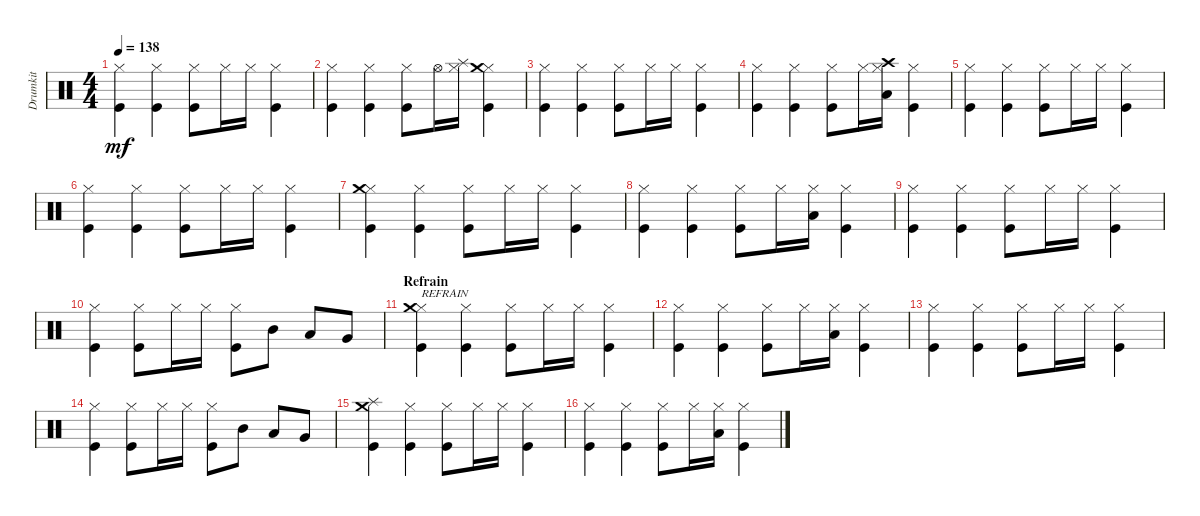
\track ("Drumkit" "Drumkit") {instrument percussion}
\staff {score}
\articulation defaults
\ts (4 4)
\tempo 138
\clef neutral
\ks c
("Hi-Hat (closed)" "Kick (hit)").4{dy mf} ("Hi-Hat (closed)" "Kick (hit)").4 ("Hi-Hat (closed)" "Kick (hit)").8 "Hi-Hat (closed)".16 "Hi-Hat (closed)".16 ("Hi-Hat (closed)" "Kick (hit)").4 |
("Hi-Hat (closed)" "Kick (hit)").4 ("Hi-Hat (closed)" "Kick (hit)").4 ("Hi-Hat (closed)" "Kick (hit)").8 "Hi-Hat (open)".16 ("Hi-Hat (closed)" "Splash (hit)").16 ("Hi-Hat (closed)" "Kick (hit)" "Crash medium (hit)").4 |
("Hi-Hat (closed)" "Kick (hit)").4 ("Hi-Hat (closed)" "Kick (hit)").4 ("Hi-Hat (closed)" "Kick (hit)").8 "Hi-Hat (closed)".16 "Hi-Hat (closed)".16 ("Hi-Hat (closed)" "Kick (hit)").4 |
("Hi-Hat (closed)" "Kick (hit)").4 ("Hi-Hat (closed)" "Kick (hit)").4 ("Hi-Hat (closed)" "Kick (hit)").8 "Hi-Hat (closed)".16 ("Hi-Hat (closed)" "Crash high (hit)" "Low Tom (hit)").16 ("Hi-Hat (closed)" "Kick (hit)").4 |
("Hi-Hat (closed)" "Kick (hit)").4 ("Hi-Hat (closed)" "Kick (hit)").4 ("Hi-Hat (closed)" "Kick (hit)").8 "Hi-Hat (closed)".16 "Hi-Hat (closed)".16 ("Hi-Hat (closed)" "Kick (hit)").4 |
("Hi-Hat (closed)" "Kick (hit)").4 ("Hi-Hat (closed)" "Kick (hit)").4 ("Hi-Hat (closed)" "Kick (hit)").8 "Hi-Hat (closed)".16 "Hi-Hat (closed)".16 ("Hi-Hat (closed)" "Kick (hit)").4 |
("Hi-Hat (closed)" "Kick (hit)" "Crash medium (hit)").4 ("Hi-Hat (closed)" "Kick (hit)").4 ("Hi-Hat (closed)" "Kick (hit)").8 "Hi-Hat (closed)".16 "Hi-Hat (closed)".16 ("Hi-Hat (closed)" "Kick (hit)").4 |
("Hi-Hat (closed)" "Kick (hit)").4 ("Hi-Hat (closed)" "Kick (hit)").4 ("Hi-Hat (closed)" "Kick (hit)").8 "Hi-Hat (closed)".16 ("Hi-Hat (closed)" "Low Tom (hit)").16 ("Hi-Hat (closed)" "Kick (hit)").4 |
("Hi-Hat (closed)" "Kick (hit)").4 ("Hi-Hat (closed)" "Kick (hit)").4 ("Hi-Hat (closed)" "Kick (hit)").8 "Hi-Hat (closed)".16 "Hi-Hat (closed)".16 ("Hi-Hat (closed)" "Kick (hit)").4 |
("Hi-Hat (closed)" "Kick (hit)").4 ("Hi-Hat (closed)" "Kick (hit)").8 "Hi-Hat (closed)".16 "Hi-Hat (closed)".16 ("Hi-Hat (closed)" "Kick (hit)").8 "Mid Tom (hit)".8 "Low Tom (hit)".8 "Very Low Tom (hit)".8 |
\section ("" "Refrain")
("Hi-Hat (closed)" "Kick (hit)" "Crash medium (hit)").4{txt "REFRAIN"} ("Hi-Hat (closed)" "Kick (hit)").4 ("Hi-Hat (closed)" "Kick (hit)").8 "Hi-Hat (closed)".16 "Hi-Hat (closed)".16 ("Hi-Hat (closed)" "Kick (hit)").4 |
("Hi-Hat (closed)" "Kick (hit)").4 ("Hi-Hat (closed)" "Kick (hit)").4 ("Hi-Hat (closed)" "Kick (hit)").8 "Hi-Hat (closed)".16 ("Hi-Hat (closed)" "Low Tom (hit)").16 ("Hi-Hat (closed)" "Kick (hit)").4 |
("Hi-Hat (closed)" "Kick (hit)").4 ("Hi-Hat (closed)" "Kick (hit)").4 ("Hi-Hat (closed)" "Kick (hit)").8 "Hi-Hat (closed)".16 "Hi-Hat (closed)".16 ("Hi-Hat (closed)" "Kick (hit)").4 |
("Hi-Hat (closed)" "Kick (hit)").4 ("Hi-Hat (closed)" "Kick (hit)").8 "Hi-Hat (closed)".16 "Hi-Hat (closed)".16 ("Hi-Hat (closed)" "Kick (hit)").8 "Mid Tom (hit)".8 "Low Tom (hit)".8 "Very Low Tom (hit)".8 |
("Kick (hit)" "Crash medium (hit)" "Splash (hit)").4 ("Hi-Hat (closed)" "Kick (hit)").4 ("Hi-Hat (closed)" "Kick (hit)").8 "Hi-Hat (closed)".16 "Hi-Hat (closed)".16 ("Hi-Hat (closed)" "Kick (hit)").4 |
("Hi-Hat (closed)" "Kick (hit)").4 ("Hi-Hat (closed)" "Kick (hit)").4 ("Hi-Hat (closed)" "Kick (hit)").8 "Hi-Hat (closed)".16 ("Hi-Hat (closed)" "Low Tom (hit)").16 ("Hi-Hat (closed)" "Kick (hit)").4
